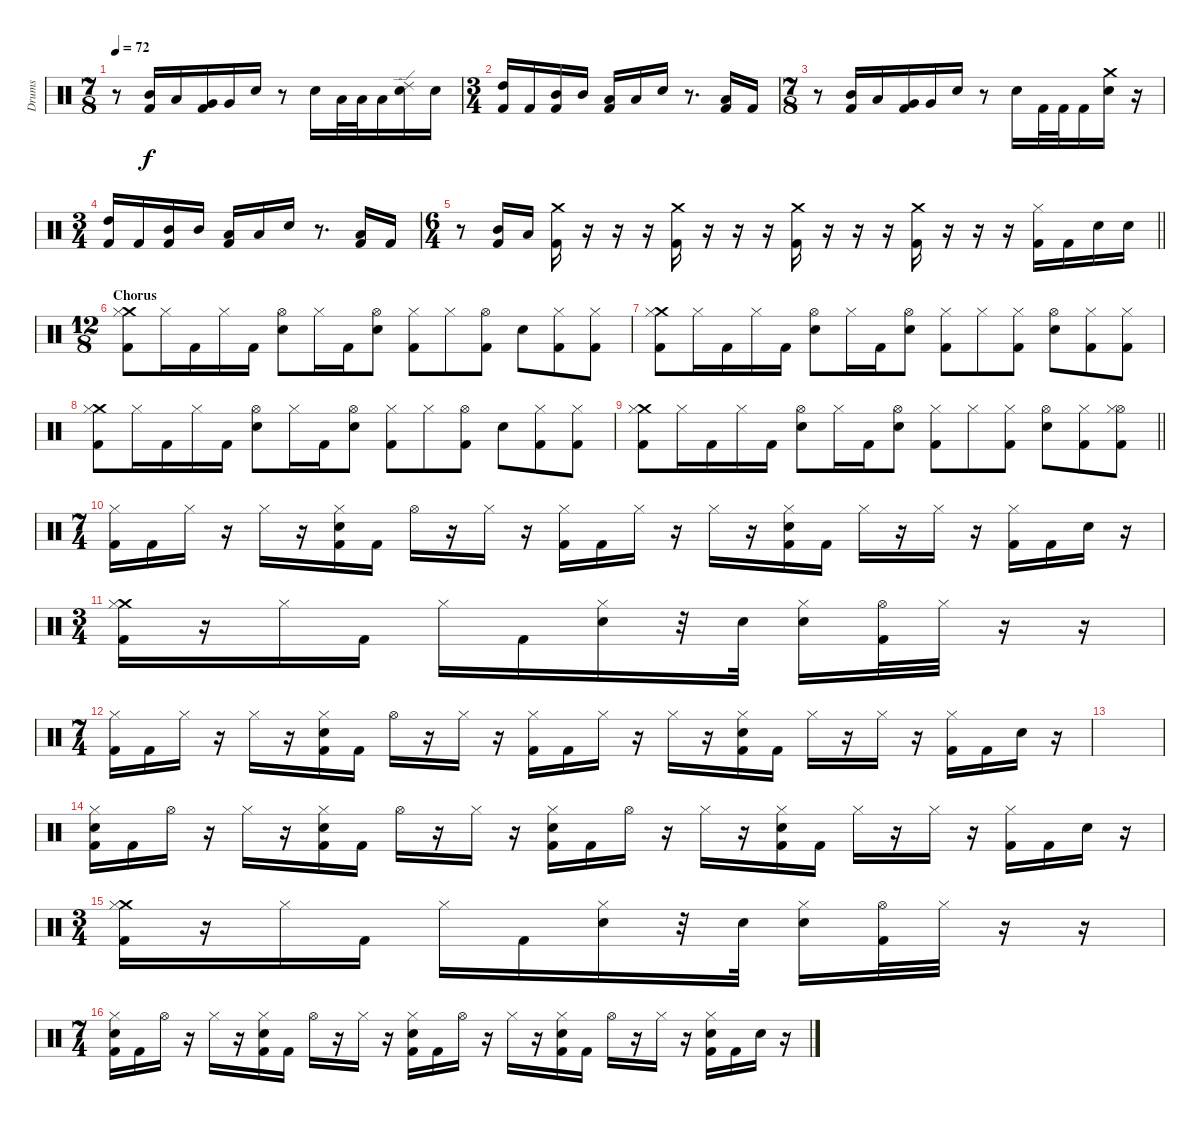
\track ("Drums" "Drums") {instrument percussion}
\staff {score}
\articulation defaults
\ts (7 8)
\tempo 72
\clef neutral
\ks c
r.8{dy f} ("Mid Tom (hit)" "Kick (hit) 2").16 "Low Tom (hit)".16 ("Very Low Tom (hit)" "Kick (hit) 2").16 "Very Low Tom (hit)".16 "Snare (hit) 2".16 r.8 "Snare (hit) 2".16 "Low Tom (hit)".32 "Low Tom (hit)".32 "Low Tom (hit)".16 ("Ride (edge) 2" "Snare (hit) 2").16 "Snare (hit) 2".16 |
\ts (3 4)
("High Tom (hit)" "Kick (hit) 2").16 "Kick (hit) 2".16 ("Mid Tom (hit)" "Kick (hit) 2").16 "Mid Tom (hit)".16 ("Low Tom (hit)" "Kick (hit) 2").16 "Low Tom (hit)".16 "Snare (hit) 2".16 r.8{d} ("Low Tom (hit)" "Kick (hit) 2").16 "Kick (hit) 2".16 |
\ts (7 8)
r.8 ("Mid Tom (hit)" "Kick (hit) 2").16 "Low Tom (hit)".16 ("Very Low Tom (hit)" "Kick (hit) 2").16 "Very Low Tom (hit)".16 "Snare (hit) 2".16 r.8 "Snare (hit) 2".16 "Kick (hit) 2".32 "Kick (hit) 2".32 "Kick (hit) 2".16 ("Crash medium (hit)" "Snare (hit) 2").16 r.16 |
\ts (3 4)
("High Tom (hit)" "Kick (hit) 2").16 "Kick (hit) 2".16 ("Mid Tom (hit)" "Kick (hit) 2").16 "Mid Tom (hit)".16 ("Low Tom (hit)" "Kick (hit) 2").16 "Low Tom (hit)".16 "Snare (hit) 2".16 r.8{d} ("Low Tom (hit)" "Kick (hit) 2").16 "Kick (hit) 2".16 |
\ts (6 4)
\barLineRight lightlight
r.8 ("Mid Tom (hit)" "Kick (hit) 2").16 "Low Tom (hit)".16 ("Crash medium (hit)" "Kick (hit) 2").16 r.16 r.16 r.16 ("Crash medium (hit)" "Kick (hit) 2").16 r.16 r.16 r.16 ("Crash medium (hit)" "Kick (hit) 2").16 r.16 r.16 r.16 ("Crash medium (hit)" "Kick (hit) 2").16 r.16 r.16 r.16 ("Hi-Hat (closed)" "Kick (hit) 2").16 "Kick (hit) 2".16 "Snare (hit) 2".16 "Snare (hit) 2".16 |
\ts (12 8)
\section ("" "Chorus")
("Crash medium (hit)" "Hi-Hat (closed)" "Kick (hit) 2").8 "Hi-Hat (closed)".16 "Kick (hit) 2".16 "Hi-Hat (closed)".16 "Kick (hit) 2".16 ("Hi-Hat (open)" "Snare (hit) 2").8 "Hi-Hat (closed)".16 "Kick (hit) 2".16 ("Hi-Hat (open)" "Snare (hit) 2").8 ("Hi-Hat (closed)" "Kick (hit) 2").8 "Hi-Hat (closed)".8 ("Hi-Hat (open)" "Kick (hit) 2").8 "Snare (hit) 2".8 ("Hi-Hat (closed)" "Kick (hit) 2").8 ("Hi-Hat (closed)" "Kick (hit) 2").8 |
("Crash medium (hit)" "Hi-Hat (closed)" "Kick (hit) 2").8 "Hi-Hat (closed)".16 "Kick (hit) 2".16 "Hi-Hat (closed)".16 "Kick (hit) 2".16 ("Hi-Hat (open)" "Snare (hit) 2").8 "Hi-Hat (closed)".16 "Kick (hit) 2".16 ("Hi-Hat (open)" "Snare (hit) 2").8 ("Hi-Hat (closed)" "Kick (hit) 2").8 "Hi-Hat (closed)".8 ("Hi-Hat (closed)" "Kick (hit) 2").8 ("Hi-Hat (open)" "Snare (hit) 2").8 ("Hi-Hat (closed)" "Kick (hit) 2").8 ("Hi-Hat (closed)" "Kick (hit) 2").8 |
("Crash medium (hit)" "Hi-Hat (closed)" "Kick (hit) 2").8 "Hi-Hat (closed)".16 "Kick (hit) 2".16 "Hi-Hat (closed)".16 "Kick (hit) 2".16 ("Hi-Hat (open)" "Snare (hit) 2").8 "Hi-Hat (closed)".16 "Kick (hit) 2".16 ("Hi-Hat (open)" "Snare (hit) 2").8 ("Hi-Hat (closed)" "Kick (hit) 2").8 "Hi-Hat (closed)".8 ("Hi-Hat (open)" "Kick (hit) 2").8 "Snare (hit) 2".8 ("Hi-Hat (closed)" "Kick (hit) 2").8 ("Hi-Hat (closed)" "Kick (hit) 2").8 |
\barLineRight lightlight
("Crash medium (hit)" "Hi-Hat (closed)" "Kick (hit) 2").8 "Hi-Hat (closed)".16 "Kick (hit) 2".16 "Hi-Hat (closed)".16 "Kick (hit) 2".16 ("Hi-Hat (open)" "Snare (hit) 2").8 "Hi-Hat (closed)".16 "Kick (hit) 2".16 ("Hi-Hat (open)" "Snare (hit) 2").8 ("Hi-Hat (closed)" "Kick (hit) 2").8 "Hi-Hat (closed)".8 ("Hi-Hat (closed)" "Kick (hit) 2").8 ("Hi-Hat (open)" "Snare (hit) 2").8 ("Hi-Hat (closed)" "Kick (hit) 2").8 ("Hi-Hat (open)" "Hi-Hat (closed)" "Kick (hit) 2").8 |
\ts (7 4)
\section ("" "")
("Hi-Hat (closed)" "Kick (hit) 2").16 "Kick (hit) 2".16 "Hi-Hat (closed)".16 r.16 "Hi-Hat (closed)".16 r.16 ("Hi-Hat (closed)" "Snare (hit) 2" "Kick (hit) 2").16 "Kick (hit) 2".16 "Hi-Hat (open)".16 r.16 "Hi-Hat (closed)".16 r.16 ("Hi-Hat (closed)" "Kick (hit) 2").16 "Kick (hit) 2".16 "Hi-Hat (closed)".16 r.16 "Hi-Hat (closed)".16 r.16 ("Hi-Hat (closed)" "Snare (hit) 2" "Kick (hit) 2").16 "Kick (hit) 2".16 "Hi-Hat (closed)".16 r.16 "Hi-Hat (closed)".16 r.16 ("Hi-Hat (closed)" "Kick (hit) 2").16 "Kick (hit) 2".16 "Snare (hit) 2".16 r.16 |
\ts (3 4)
("Crash medium (hit)" "Hi-Hat (closed)" "Kick (hit) 2").16 r.16 "Hi-Hat (closed)".16 "Kick (hit) 2".16 "Hi-Hat (closed)".16 "Kick (hit) 2".16 ("Hi-Hat (closed)" "Snare (hit) 2").16 r.32 "Snare (hit) 2".32 ("Hi-Hat (closed)" "Snare (hit) 2").16 ("Hi-Hat (open)" "Kick (hit) 2").32 "Hi-Hat (closed)".32 r.16 r.16 |
\ts (7 4)
("Hi-Hat (closed)" "Kick (hit) 2").16 "Kick (hit) 2".16 "Hi-Hat (closed)".16 r.16 "Hi-Hat (closed)".16 r.16 ("Hi-Hat (closed)" "Snare (hit) 2" "Kick (hit) 2").16 "Kick (hit) 2".16 "Hi-Hat (open)".16 r.16 "Hi-Hat (closed)".16 r.16 ("Hi-Hat (closed)" "Kick (hit) 2").16 "Kick (hit) 2".16 "Hi-Hat (closed)".16 r.16 "Hi-Hat (closed)".16 r.16 ("Hi-Hat (closed)" "Snare (hit) 2" "Kick (hit) 2").16 "Kick (hit) 2".16 "Hi-Hat (closed)".16 r.16 "Hi-Hat (closed)".16 r.16 ("Hi-Hat (closed)" "Kick (hit) 2").16 "Kick (hit) 2".16 "Snare (hit) 2".16 r.16 |
|
("Hi-Hat (closed)" "Snare (hit) 2" "Kick (hit) 2").16 "Kick (hit) 2".16 "Hi-Hat (open)".16 r.16 "Hi-Hat (closed)".16 r.16 ("Hi-Hat (closed)" "Snare (hit) 2" "Kick (hit) 2").16 "Kick (hit) 2".16 "Hi-Hat (open)".16 r.16 "Hi-Hat (closed)".16 r.16 ("Hi-Hat (closed)" "Snare (hit) 2" "Kick (hit) 2").16 "Kick (hit) 2".16 "Hi-Hat (open)".16 r.16 "Hi-Hat (closed)".16 r.16 ("Hi-Hat (closed)" "Snare (hit) 2" "Kick (hit) 2").16 "Kick (hit) 2".16 "Hi-Hat (closed)".16 r.16 "Hi-Hat (closed)".16 r.16 ("Hi-Hat (closed)" "Kick (hit) 2").16 "Kick (hit) 2".16 "Snare (hit) 2".16 r.16 |
\ts (3 4)
("Crash medium (hit)" "Hi-Hat (closed)" "Kick (hit) 2").16 r.16 "Hi-Hat (closed)".16 "Kick (hit) 2".16 "Hi-Hat (closed)".16 "Kick (hit) 2".16 ("Hi-Hat (closed)" "Snare (hit) 2").16 r.32 "Snare (hit) 2".32 ("Hi-Hat (closed)" "Snare (hit) 2").16 ("Hi-Hat (open)" "Kick (hit) 2").32 "Hi-Hat (closed)".32 r.16 r.16 |
\ts (7 4)
("Hi-Hat (closed)" "Snare (hit) 2" "Kick (hit) 2").16 "Kick (hit) 2".16 "Hi-Hat (open)".16 r.16 "Hi-Hat (closed)".16 r.16 ("Hi-Hat (closed)" "Snare (hit) 2" "Kick (hit) 2").16 "Kick (hit) 2".16 "Hi-Hat (open)".16 r.16 "Hi-Hat (closed)".16 r.16 ("Hi-Hat (closed)" "Snare (hit) 2" "Kick (hit) 2").16 "Kick (hit) 2".16 "Hi-Hat (open)".16 r.16 "Hi-Hat (closed)".16 r.16 ("Hi-Hat (closed)" "Snare (hit) 2" "Kick (hit) 2").16 "Kick (hit) 2".16 "Hi-Hat (open)".16 r.16 "Hi-Hat (closed)".16 r.16 ("Hi-Hat (closed)" "Snare (hit) 2" "Kick (hit) 2").16 "Kick (hit) 2".16 "Snare (hit) 2".16 r.16
